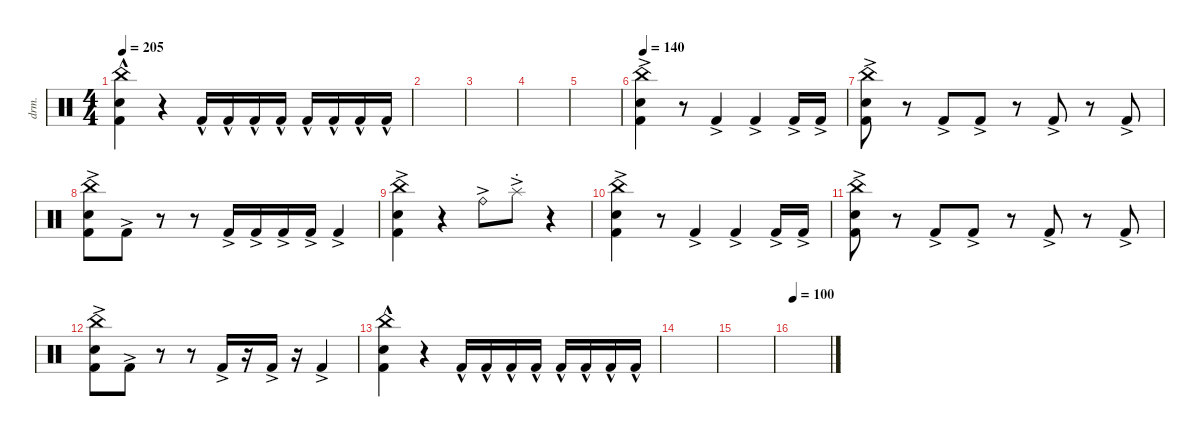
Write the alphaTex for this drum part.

\defaultSystemsLayout 4
\hideDynamics
\bracketExtendMode nobrackets
\otherSystemsTrackNameOrientation horizontal
\track ("Drumkit" "drm.") {instrument percussion}
\staff {score}
\articulation defaults
\ts (4 4)
\tempo 205
\clef neutral
\ks c
("China (hit)"{hac} "Kick (hit) 2"{hac} "Snare (hit) 2"{hac}).4{dy mf} r.4 "Kick (hit) 2"{hac}.16 "Kick (hit) 2"{hac}.16 "Kick (hit) 2"{hac}.16 "Kick (hit) 2"{hac}.16 "Kick (hit) 2"{hac}.16 "Kick (hit) 2"{hac}.16 "Kick (hit) 2"{hac}.16 "Kick (hit) 2"{hac}.16 |
|
|
|
|
\tempo 140
("China (hit)"{ac} "Kick (hit) 2"{ac} "Snare (hit) 2"{ac}).4 r.8 "Kick (hit) 2"{ac}.4 "Kick (hit) 2"{ac}.4 "Kick (hit) 2"{ac}.16 "Kick (hit) 2"{ac}.16 |
("Kick (hit) 2"{ac} "China (hit)"{ac} "Snare (hit) 2"{ac}).8 r.8 "Kick (hit) 2"{ac}.8 "Kick (hit) 2"{ac}.8 r.8 "Kick (hit) 2"{ac}.8 r.8 "Kick (hit) 2"{ac}.8 |
("Kick (hit) 2"{ac} "China (hit)"{ac} "Snare (hit) 2"{ac}).8 "Kick (hit) 2"{ac}.8 r.8 r.8 "Kick (hit) 2"{ac}.16 "Kick (hit) 2"{ac}.16 "Kick (hit) 2"{ac}.16 "Kick (hit) 2"{ac}.16 "Kick (hit) 2"{ac}.4 |
("China (hit)"{ac} "Kick (hit) 2"{ac} "Snare (hit) 2"{ac}).4 r.4 "Ride (bell)"{ac}.8 "Splash (choke)"{ac}.8 r.4 |
("China (hit)"{ac} "Kick (hit) 2"{ac} "Snare (hit) 2"{ac}).4 r.8 "Kick (hit) 2"{ac}.4 "Kick (hit) 2"{ac}.4 "Kick (hit) 2"{ac}.16 "Kick (hit) 2"{ac}.16 |
("Kick (hit) 2"{ac} "China (hit)"{ac} "Snare (hit) 2"{ac}).8 r.8 "Kick (hit) 2"{ac}.8 "Kick (hit) 2"{ac}.8 r.8 "Kick (hit) 2"{ac}.8 r.8 "Kick (hit) 2"{ac}.8 |
("Kick (hit) 2"{ac} "China (hit)"{ac} "Snare (hit) 2"{ac}).8 "Kick (hit) 2"{ac}.8 r.8 r.8 "Kick (hit) 2"{ac}.16 r.16 "Kick (hit) 2"{ac}.16 r.16 "Kick (hit) 2"{ac}.4 |
("China (hit)"{hac} "Kick (hit) 2"{hac} "Snare (hit) 2"{hac}).4 r.4 "Kick (hit) 2"{hac}.16 "Kick (hit) 2"{hac}.16 "Kick (hit) 2"{hac}.16 "Kick (hit) 2"{hac}.16 "Kick (hit) 2"{hac}.16 "Kick (hit) 2"{hac}.16 "Kick (hit) 2"{hac}.16 "Kick (hit) 2"{hac}.16 |
|
|
\tempo 100
